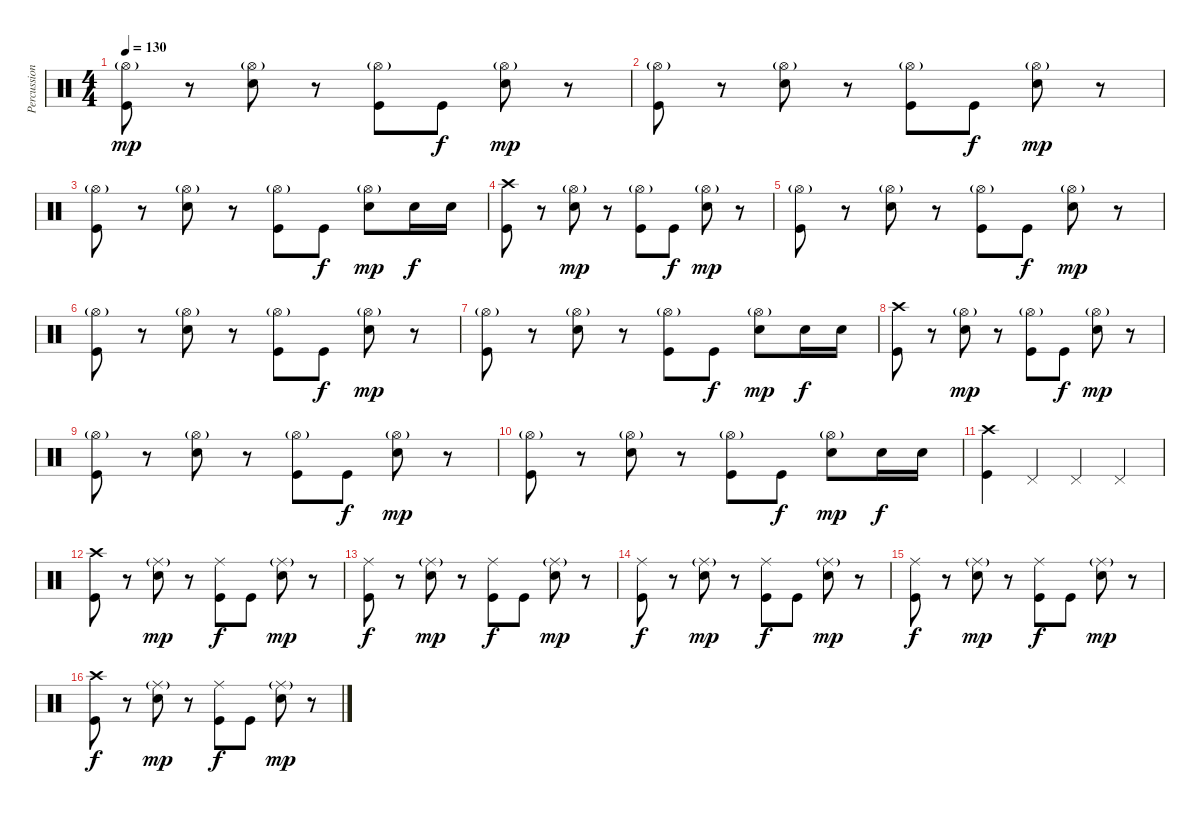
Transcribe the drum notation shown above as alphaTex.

\track ("Percussion" "Percussion") {instrument percussion}
\staff {score}
\articulation defaults
\ts (4 4)
\tempo 130
\clef neutral
\ks c
("Hi-Hat (open)"{g} "Kick (hit)").8{dy mp} r.8 ("Hi-Hat (open)"{g} "Electric Snare (hit)").8 r.8 ("Hi-Hat (open)"{g} "Kick (hit)").8 "Kick (hit)".8{dy f} ("Hi-Hat (open)"{g} "Electric Snare (hit)").8{dy mp} r.8 |
("Hi-Hat (open)"{g} "Kick (hit)").8 r.8 ("Hi-Hat (open)"{g} "Electric Snare (hit)").8 r.8 ("Hi-Hat (open)"{g} "Kick (hit)").8 "Kick (hit)".8{dy f} ("Hi-Hat (open)"{g} "Electric Snare (hit)").8{dy mp} r.8 |
("Hi-Hat (open)"{g} "Kick (hit)").8 r.8 ("Hi-Hat (open)"{g} "Electric Snare (hit)").8 r.8 ("Hi-Hat (open)"{g} "Kick (hit)").8 "Kick (hit)".8{dy f} ("Hi-Hat (open)"{g} "Electric Snare (hit)").8{dy mp} "Electric Snare (hit)".16{dy f} "Electric Snare (hit)".16 |
("Crash high (hit)" "Kick (hit)").8 r.8 ("Hi-Hat (open)"{g} "Electric Snare (hit)").8{dy mp} r.8 ("Hi-Hat (open)"{g} "Kick (hit)").8 "Kick (hit)".8{dy f} ("Hi-Hat (open)"{g} "Electric Snare (hit)").8{dy mp} r.8 |
("Hi-Hat (open)"{g} "Kick (hit)").8 r.8 ("Hi-Hat (open)"{g} "Electric Snare (hit)").8 r.8 ("Hi-Hat (open)"{g} "Kick (hit)").8 "Kick (hit)".8{dy f} ("Hi-Hat (open)"{g} "Electric Snare (hit)").8{dy mp} r.8 |
("Hi-Hat (open)"{g} "Kick (hit)").8 r.8 ("Hi-Hat (open)"{g} "Electric Snare (hit)").8 r.8 ("Hi-Hat (open)"{g} "Kick (hit)").8 "Kick (hit)".8{dy f} ("Hi-Hat (open)"{g} "Electric Snare (hit)").8{dy mp} r.8 |
("Hi-Hat (open)"{g} "Kick (hit)").8 r.8 ("Hi-Hat (open)"{g} "Electric Snare (hit)").8 r.8 ("Hi-Hat (open)"{g} "Kick (hit)").8 "Kick (hit)".8{dy f} ("Hi-Hat (open)"{g} "Electric Snare (hit)").8{dy mp} "Electric Snare (hit)".16{dy f} "Electric Snare (hit)".16 |
("Crash high (hit)" "Kick (hit)").8 r.8 ("Hi-Hat (open)"{g} "Electric Snare (hit)").8{dy mp} r.8 ("Hi-Hat (open)"{g} "Kick (hit)").8 "Kick (hit)".8{dy f} ("Hi-Hat (open)"{g} "Electric Snare (hit)").8{dy mp} r.8 |
("Hi-Hat (open)"{g} "Kick (hit)").8 r.8 ("Hi-Hat (open)"{g} "Electric Snare (hit)").8 r.8 ("Hi-Hat (open)"{g} "Kick (hit)").8 "Kick (hit)".8{dy f} ("Hi-Hat (open)"{g} "Electric Snare (hit)").8{dy mp} r.8 |
("Hi-Hat (open)"{g} "Kick (hit)").8 r.8 ("Hi-Hat (open)"{g} "Electric Snare (hit)").8 r.8 ("Hi-Hat (open)"{g} "Kick (hit)").8 "Kick (hit)".8{dy f} ("Hi-Hat (open)"{g} "Electric Snare (hit)").8{dy mp} "Electric Snare (hit)".16{dy f} "Electric Snare (hit)".16 |
("Crash high (hit)" "Kick (hit)").4 "Pedal Hi-Hat (hit)".4 "Pedal Hi-Hat (hit)".4 "Pedal Hi-Hat (hit)".4 |
("Crash high (hit)" "Kick (hit)").8 r.8 ("Ride (middle)"{g} "Electric Snare (hit)").8{dy mp} r.8 ("Ride (middle)" "Kick (hit)").8{dy f} "Kick (hit)".8 ("Ride (middle)"{g} "Electric Snare (hit)").8{dy mp} r.8 |
("Ride (middle)" "Kick (hit)").8{dy f} r.8 ("Ride (middle)"{g} "Electric Snare (hit)").8{dy mp} r.8 ("Ride (middle)" "Kick (hit)").8{dy f} "Kick (hit)".8 ("Ride (middle)"{g} "Electric Snare (hit)").8{dy mp} r.8 |
("Ride (middle)" "Kick (hit)").8{dy f} r.8 ("Ride (middle)"{g} "Electric Snare (hit)").8{dy mp} r.8 ("Ride (middle)" "Kick (hit)").8{dy f} "Kick (hit)".8 ("Ride (middle)"{g} "Electric Snare (hit)").8{dy mp} r.8 |
("Ride (middle)" "Kick (hit)").8{dy f} r.8 ("Ride (middle)"{g} "Electric Snare (hit)").8{dy mp} r.8 ("Ride (middle)" "Kick (hit)").8{dy f} "Kick (hit)".8 ("Ride (middle)"{g} "Electric Snare (hit)").8{dy mp} r.8 |
("Crash high (hit)" "Kick (hit)").8{dy f} r.8 ("Ride (middle)"{g} "Electric Snare (hit)").8{dy mp} r.8 ("Ride (middle)" "Kick (hit)").8{dy f} "Kick (hit)".8 ("Ride (middle)"{g} "Electric Snare (hit)").8{dy mp} r.8
